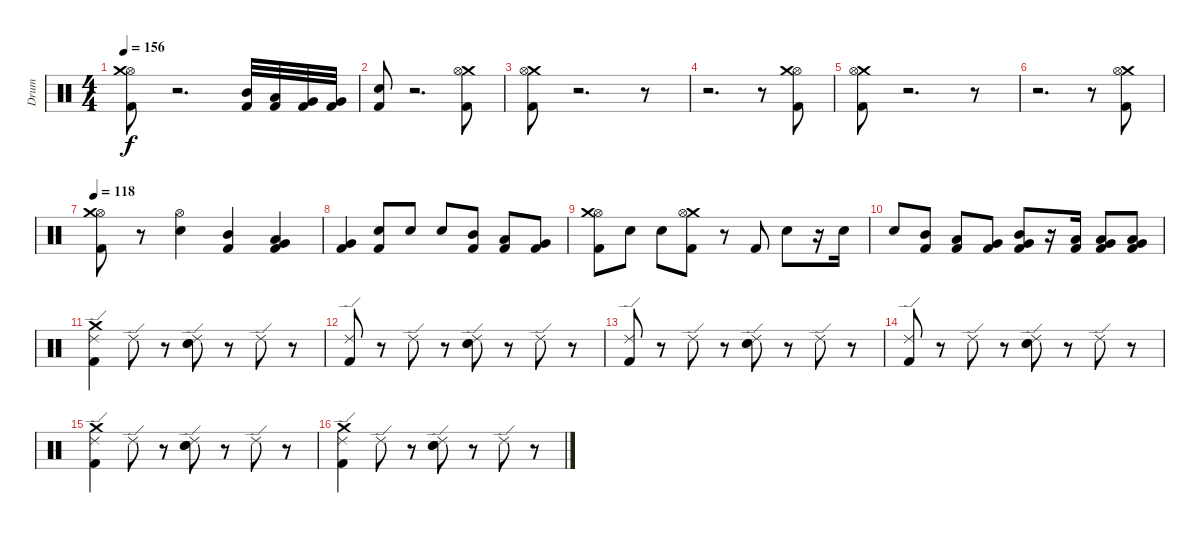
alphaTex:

\track (" Drum" " Drum") {instrument percussion}
\staff {score}
\articulation defaults
\ts (4 4)
\tempo 156
\clef neutral
\ks c
("Hi-Hat (open)" "Crash medium (hit)" "Kick (hit) 2").8{dy f} r.2{d} ("Kick (hit) 2" "Mid Tom (hit)").32 ("Kick (hit) 2" "Low Tom (hit)").32 ("Kick (hit) 2" "Very Low Tom (hit)").32 ("Kick (hit) 2" "Very Low Tom (hit)").32 |
("Kick (hit) 2" "Snare (hit) 2").8 r.2{d} ("Crash medium (hit)" "Hi-Hat (open)" "Kick (hit) 2").8 |
("Crash medium (hit)" "Hi-Hat (open)" "Kick (hit) 2").8 r.2{d} r.8 |
r.2{d} r.8 ("Hi-Hat (open)" "Crash medium (hit)" "Kick (hit) 2").8 |
("Crash medium (hit)" "Hi-Hat (open)" "Kick (hit) 2").8 r.2{d} r.8 |
r.2{d} r.8 ("Crash medium (hit)" "Hi-Hat (open)" "Kick (hit) 2").8 |
\tempo 118
("Hi-Hat (open)" "Crash medium (hit)" "Kick (hit) 2").8 r.8 ("Hi-Hat (open)" "Snare (hit) 2").4 ("Mid Tom (hit)" "Kick (hit) 2").4 ("Low Tom (hit)" "Kick (hit) 2" "Very Low Tom (hit)").4 |
("Very Low Tom (hit)" "Kick (hit) 2").4 ("Kick (hit) 2" "Snare (hit) 2").8 "Snare (hit) 2".8 "Snare (hit) 2".8 ("Kick (hit) 2" "Mid Tom (hit)").8 ("Kick (hit) 2" "Low Tom (hit)").8 ("Kick (hit) 2" "Very Low Tom (hit)").8 |
("Hi-Hat (open)" "Crash medium (hit)" "Kick (hit) 2").8 "Snare (hit) 2".8 "Snare (hit) 2".8 ("Crash medium (hit)" "Hi-Hat (open)" "Kick (hit) 2").8 r.8 "Kick (hit) 2".8 "Snare (hit) 2".8 r.16 "Snare (hit) 2".16 |
"Snare (hit) 2".8 ("Mid Tom (hit)" "Kick (hit) 2").8 ("Low Tom (hit)" "Kick (hit) 2").8 ("Very Low Tom (hit)" "Kick (hit) 2").8 ("Mid Tom (hit)" "Very Low Tom (hit)" "Kick (hit) 2").8 r.16 ("Low Tom (hit)" "Kick (hit) 2").16 ("Low Floor Tom (hit)" "Very Low Tom (hit)" "Kick (hit) 2").8 ("Very Low Tom (hit)" "Low Floor Tom (hit)" "Kick (hit) 2").8 |
("Crash medium (hit)" "Kick (hit) 2" "Ride (edge) 2").4 "Ride (edge) 2".8 r.8 ("Electric Snare (hit)" "Snare (hit) 2" "Ride (edge) 2").8 r.8 "Ride (edge) 2".8 r.8 |
("Kick (hit) 2" "Ride (edge) 2").8 r.8 "Ride (edge) 2".8 r.8 ("Electric Snare (hit)" "Snare (hit) 2" "Ride (edge) 2").8 r.8 "Ride (edge) 2".8 r.8 |
("Kick (hit) 2" "Ride (edge) 2").8 r.8 "Ride (edge) 2".8 r.8 ("Electric Snare (hit)" "Snare (hit) 2" "Ride (edge) 2").8 r.8 "Ride (edge) 2".8 r.8 |
("Kick (hit) 2" "Ride (edge) 2").8 r.8 "Ride (edge) 2".8 r.8 ("Electric Snare (hit)" "Snare (hit) 2" "Ride (edge) 2").8 r.8 "Ride (edge) 2".8 r.8 |
("Crash medium (hit)" "Kick (hit) 2" "Ride (edge) 2").4 "Ride (edge) 2".8 r.8 ("Electric Snare (hit)" "Snare (hit) 2" "Ride (edge) 2").8 r.8 "Ride (edge) 2".8 r.8 |
("Crash medium (hit)" "Kick (hit) 2" "Ride (edge) 2").4 "Ride (edge) 2".8 r.8 ("Electric Snare (hit)" "Snare (hit) 2" "Ride (edge) 2").8 r.8 "Ride (edge) 2".8 r.8
